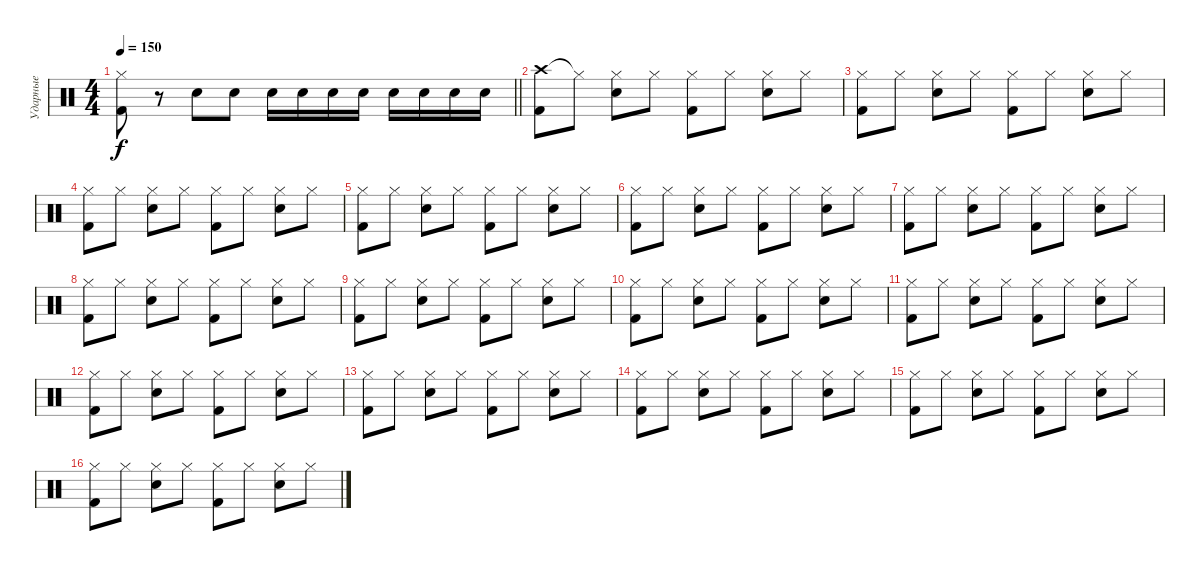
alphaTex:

\track ("Ударные" "Ударные") {instrument percussion}
\staff {score}
\articulation defaults
\ts (4 4)
\tempo 150
\clef neutral
\barLineRight lightlight
\ks c
("Hi-Hat (closed)" "Kick (hit) 2").8{dy f} r.8 "Snare (hit) 2".8 "Snare (hit) 2".8 "Snare (hit) 2".16 "Snare (hit) 2".16 "Snare (hit) 2".16 "Snare (hit) 2".16 "Snare (hit) 2".16 "Snare (hit) 2".16 "Snare (hit) 2".16 "Snare (hit) 2".16 |
("Crash high (hit)" "Kick (hit) 2").8 "Hi-Hat (closed)"{t}.8 ("Hi-Hat (closed)" "Snare (hit) 2").8 "Hi-Hat (closed)".8 ("Hi-Hat (closed)" "Kick (hit) 2").8 "Hi-Hat (closed)".8 ("Hi-Hat (closed)" "Snare (hit) 2").8 "Hi-Hat (closed)".8 |
("Hi-Hat (closed)" "Kick (hit) 2").8 "Hi-Hat (closed)".8 ("Hi-Hat (closed)" "Snare (hit) 2").8 "Hi-Hat (closed)".8 ("Hi-Hat (closed)" "Kick (hit) 2").8 "Hi-Hat (closed)".8 ("Hi-Hat (closed)" "Snare (hit) 2").8 "Hi-Hat (closed)".8 |
("Hi-Hat (closed)" "Kick (hit) 2").8 "Hi-Hat (closed)".8 ("Hi-Hat (closed)" "Snare (hit) 2").8 "Hi-Hat (closed)".8 ("Hi-Hat (closed)" "Kick (hit) 2").8 "Hi-Hat (closed)".8 ("Hi-Hat (closed)" "Snare (hit) 2").8 "Hi-Hat (closed)".8 |
("Hi-Hat (closed)" "Kick (hit) 2").8 "Hi-Hat (closed)".8 ("Hi-Hat (closed)" "Snare (hit) 2").8 "Hi-Hat (closed)".8 ("Hi-Hat (closed)" "Kick (hit) 2").8 "Hi-Hat (closed)".8 ("Hi-Hat (closed)" "Snare (hit) 2").8 "Hi-Hat (closed)".8 |
("Hi-Hat (closed)" "Kick (hit) 2").8 "Hi-Hat (closed)".8 ("Hi-Hat (closed)" "Snare (hit) 2").8 "Hi-Hat (closed)".8 ("Hi-Hat (closed)" "Kick (hit) 2").8 "Hi-Hat (closed)".8 ("Hi-Hat (closed)" "Snare (hit) 2").8 "Hi-Hat (closed)".8 |
("Hi-Hat (closed)" "Kick (hit) 2").8 "Hi-Hat (closed)".8 ("Hi-Hat (closed)" "Snare (hit) 2").8 "Hi-Hat (closed)".8 ("Hi-Hat (closed)" "Kick (hit) 2").8 "Hi-Hat (closed)".8 ("Hi-Hat (closed)" "Snare (hit) 2").8 "Hi-Hat (closed)".8 |
("Hi-Hat (closed)" "Kick (hit) 2").8 "Hi-Hat (closed)".8 ("Hi-Hat (closed)" "Snare (hit) 2").8 "Hi-Hat (closed)".8 ("Hi-Hat (closed)" "Kick (hit) 2").8 "Hi-Hat (closed)".8 ("Hi-Hat (closed)" "Snare (hit) 2").8 "Hi-Hat (closed)".8 |
("Hi-Hat (closed)" "Kick (hit) 2").8 "Hi-Hat (closed)".8 ("Hi-Hat (closed)" "Snare (hit) 2").8 "Hi-Hat (closed)".8 ("Hi-Hat (closed)" "Kick (hit) 2").8 "Hi-Hat (closed)".8 ("Hi-Hat (closed)" "Snare (hit) 2").8 "Hi-Hat (closed)".8 |
("Hi-Hat (closed)" "Kick (hit) 2").8 "Hi-Hat (closed)".8 ("Hi-Hat (closed)" "Snare (hit) 2").8 "Hi-Hat (closed)".8 ("Hi-Hat (closed)" "Kick (hit) 2").8 "Hi-Hat (closed)".8 ("Hi-Hat (closed)" "Snare (hit) 2").8 "Hi-Hat (closed)".8 |
("Hi-Hat (closed)" "Kick (hit) 2").8 "Hi-Hat (closed)".8 ("Hi-Hat (closed)" "Snare (hit) 2").8 "Hi-Hat (closed)".8 ("Hi-Hat (closed)" "Kick (hit) 2").8 "Hi-Hat (closed)".8 ("Hi-Hat (closed)" "Snare (hit) 2").8 "Hi-Hat (closed)".8 |
("Hi-Hat (closed)" "Kick (hit) 2").8 "Hi-Hat (closed)".8 ("Hi-Hat (closed)" "Snare (hit) 2").8 "Hi-Hat (closed)".8 ("Hi-Hat (closed)" "Kick (hit) 2").8 "Hi-Hat (closed)".8 ("Hi-Hat (closed)" "Snare (hit) 2").8 "Hi-Hat (closed)".8 |
("Hi-Hat (closed)" "Kick (hit) 2").8 "Hi-Hat (closed)".8 ("Hi-Hat (closed)" "Snare (hit) 2").8 "Hi-Hat (closed)".8 ("Hi-Hat (closed)" "Kick (hit) 2").8 "Hi-Hat (closed)".8 ("Hi-Hat (closed)" "Snare (hit) 2").8 "Hi-Hat (closed)".8 |
("Hi-Hat (closed)" "Kick (hit) 2").8 "Hi-Hat (closed)".8 ("Hi-Hat (closed)" "Snare (hit) 2").8 "Hi-Hat (closed)".8 ("Hi-Hat (closed)" "Kick (hit) 2").8 "Hi-Hat (closed)".8 ("Hi-Hat (closed)" "Snare (hit) 2").8 "Hi-Hat (closed)".8 |
("Hi-Hat (closed)" "Kick (hit) 2").8 "Hi-Hat (closed)".8 ("Hi-Hat (closed)" "Snare (hit) 2").8 "Hi-Hat (closed)".8 ("Hi-Hat (closed)" "Kick (hit) 2").8 "Hi-Hat (closed)".8 ("Hi-Hat (closed)" "Snare (hit) 2").8 "Hi-Hat (closed)".8 |
("Hi-Hat (closed)" "Kick (hit) 2").8 "Hi-Hat (closed)".8 ("Hi-Hat (closed)" "Snare (hit) 2").8 "Hi-Hat (closed)".8 ("Hi-Hat (closed)" "Kick (hit) 2").8 "Hi-Hat (closed)".8 ("Hi-Hat (closed)" "Snare (hit) 2").8 "Hi-Hat (closed)".8
